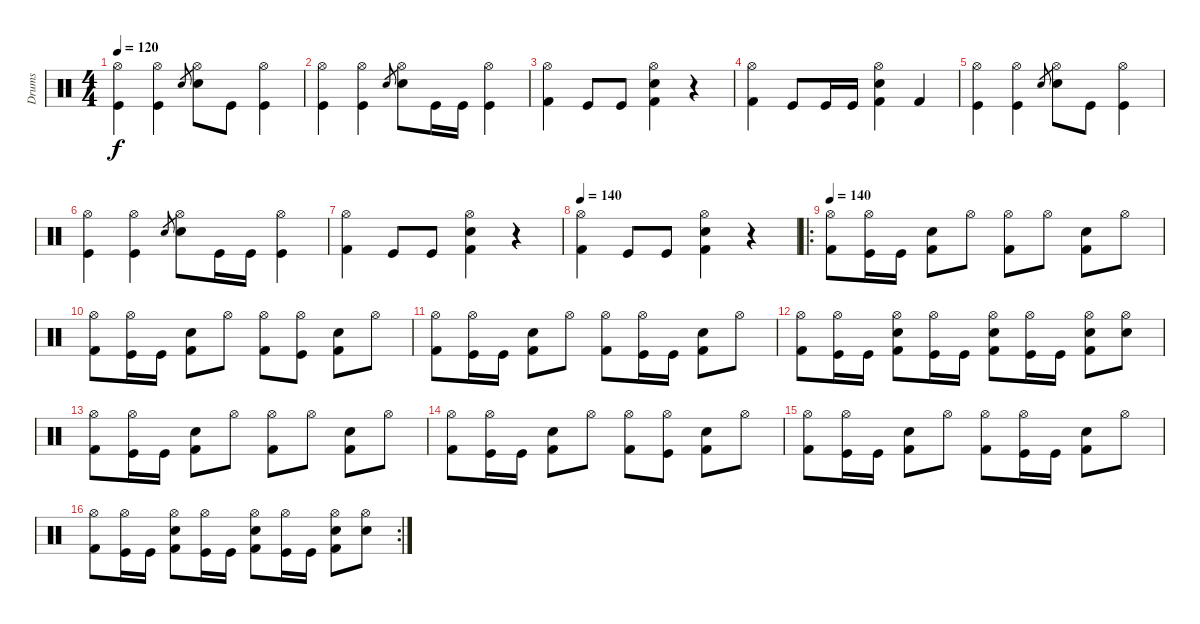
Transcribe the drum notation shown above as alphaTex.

\track ("Drums" "Drums") {instrument percussion}
\staff {score}
\articulation defaults
\ts (4 4)
\tempo 120
\clef neutral
\ks c
("Hi-Hat (open)" "Kick (hit)").4{dy f} ("Hi-Hat (open)" "Kick (hit)").4 "Snare (hit) 2".8{gr} ("Hi-Hat (open)" "Electric Snare (hit)").8 "Kick (hit)".8 ("Hi-Hat (open)" "Kick (hit)").4 |
("Hi-Hat (open)" "Kick (hit)").4 ("Hi-Hat (open)" "Kick (hit)").4 "Snare (hit) 2".8{gr} ("Hi-Hat (open)" "Electric Snare (hit)").8 "Kick (hit)".16 "Kick (hit)".16 ("Hi-Hat (open)" "Kick (hit)").4 |
("Hi-Hat (open)" "Kick (hit) 2").4 "Kick (hit)".8 "Kick (hit)".8 ("Electric Snare (hit)" "Hi-Hat (open)" "Kick (hit) 2").4 r.4 |
("Hi-Hat (open)" "Kick (hit) 2").4 "Kick (hit)".8 "Kick (hit)".16 "Kick (hit)".16 ("Electric Snare (hit)" "Hi-Hat (open)" "Kick (hit) 2").4 "Kick (hit) 2".4 |
("Hi-Hat (open)" "Kick (hit)").4 ("Hi-Hat (open)" "Kick (hit)").4 "Snare (hit) 2".8{gr} ("Hi-Hat (open)" "Electric Snare (hit)").8 "Kick (hit)".8 ("Hi-Hat (open)" "Kick (hit)").4 |
("Hi-Hat (open)" "Kick (hit)").4 ("Hi-Hat (open)" "Kick (hit)").4 "Snare (hit) 2".8{gr} ("Hi-Hat (open)" "Electric Snare (hit)").8 "Kick (hit)".16 "Kick (hit)".16 ("Hi-Hat (open)" "Kick (hit)").4 |
("Hi-Hat (open)" "Kick (hit) 2").4 "Kick (hit)".8 "Kick (hit)".8 ("Electric Snare (hit)" "Hi-Hat (open)" "Kick (hit) 2").4 r.4 |
\tempo 140
("Hi-Hat (open)" "Kick (hit) 2").4 "Kick (hit)".8 "Kick (hit)".8 ("Electric Snare (hit)" "Hi-Hat (open)" "Kick (hit) 2").4 r.4 |
\ro
\tempo 140
("Hi-Hat (open)" "Kick (hit) 2").8 ("Hi-Hat (open)" "Kick (hit)").16 "Kick (hit)".16 ("Electric Snare (hit)" "Kick (hit) 2").8 "Hi-Hat (open)".8 ("Hi-Hat (open)" "Kick (hit) 2").8 "Hi-Hat (open)".8 ("Electric Snare (hit)" "Kick (hit) 2").8 "Hi-Hat (open)".8 |
("Hi-Hat (open)" "Kick (hit) 2").8 ("Hi-Hat (open)" "Kick (hit)").16 "Kick (hit)".16 ("Electric Snare (hit)" "Kick (hit) 2").8 "Hi-Hat (open)".8 ("Hi-Hat (open)" "Kick (hit) 2").8 ("Hi-Hat (open)" "Kick (hit)").8 ("Electric Snare (hit)" "Kick (hit) 2").8 "Hi-Hat (open)".8 |
("Hi-Hat (open)" "Kick (hit) 2").8 ("Hi-Hat (open)" "Kick (hit)").16 "Kick (hit)".16 ("Electric Snare (hit)" "Kick (hit) 2").8 "Hi-Hat (open)".8 ("Hi-Hat (open)" "Kick (hit) 2").8 ("Hi-Hat (open)" "Kick (hit)").16 "Kick (hit)".16 ("Electric Snare (hit)" "Kick (hit) 2").8 "Hi-Hat (open)".8 |
("Hi-Hat (open)" "Kick (hit) 2").8 ("Hi-Hat (open)" "Kick (hit)").16 "Kick (hit)".16 ("Electric Snare (hit)" "Hi-Hat (open)" "Kick (hit) 2").8 ("Hi-Hat (open)" "Kick (hit)").16 "Kick (hit)".16 ("Electric Snare (hit)" "Hi-Hat (open)" "Kick (hit) 2").8 ("Hi-Hat (open)" "Kick (hit)").16 "Kick (hit)".16 ("Electric Snare (hit)" "Hi-Hat (open)" "Kick (hit) 2").8 ("Electric Snare (hit)" "Hi-Hat (open)").8 |
("Hi-Hat (open)" "Kick (hit) 2").8 ("Hi-Hat (open)" "Kick (hit)").16 "Kick (hit)".16 ("Electric Snare (hit)" "Kick (hit) 2").8 "Hi-Hat (open)".8 ("Hi-Hat (open)" "Kick (hit) 2").8 "Hi-Hat (open)".8 ("Electric Snare (hit)" "Kick (hit) 2").8 "Hi-Hat (open)".8 |
("Hi-Hat (open)" "Kick (hit) 2").8 ("Hi-Hat (open)" "Kick (hit)").16 "Kick (hit)".16 ("Electric Snare (hit)" "Kick (hit) 2").8 "Hi-Hat (open)".8 ("Hi-Hat (open)" "Kick (hit) 2").8 ("Hi-Hat (open)" "Kick (hit)").8 ("Electric Snare (hit)" "Kick (hit) 2").8 "Hi-Hat (open)".8 |
("Hi-Hat (open)" "Kick (hit) 2").8 ("Hi-Hat (open)" "Kick (hit)").16 "Kick (hit)".16 ("Electric Snare (hit)" "Kick (hit) 2").8 "Hi-Hat (open)".8 ("Hi-Hat (open)" "Kick (hit) 2").8 ("Hi-Hat (open)" "Kick (hit)").16 "Kick (hit)".16 ("Electric Snare (hit)" "Kick (hit) 2").8 "Hi-Hat (open)".8 |
\rc 2
("Hi-Hat (open)" "Kick (hit) 2").8 ("Hi-Hat (open)" "Kick (hit)").16 "Kick (hit)".16 ("Electric Snare (hit)" "Hi-Hat (open)" "Kick (hit) 2").8 ("Hi-Hat (open)" "Kick (hit)").16 "Kick (hit)".16 ("Electric Snare (hit)" "Hi-Hat (open)" "Kick (hit) 2").8 ("Hi-Hat (open)" "Kick (hit)").16 "Kick (hit)".16 ("Electric Snare (hit)" "Hi-Hat (open)" "Kick (hit) 2").8 ("Electric Snare (hit)" "Hi-Hat (open)").8
